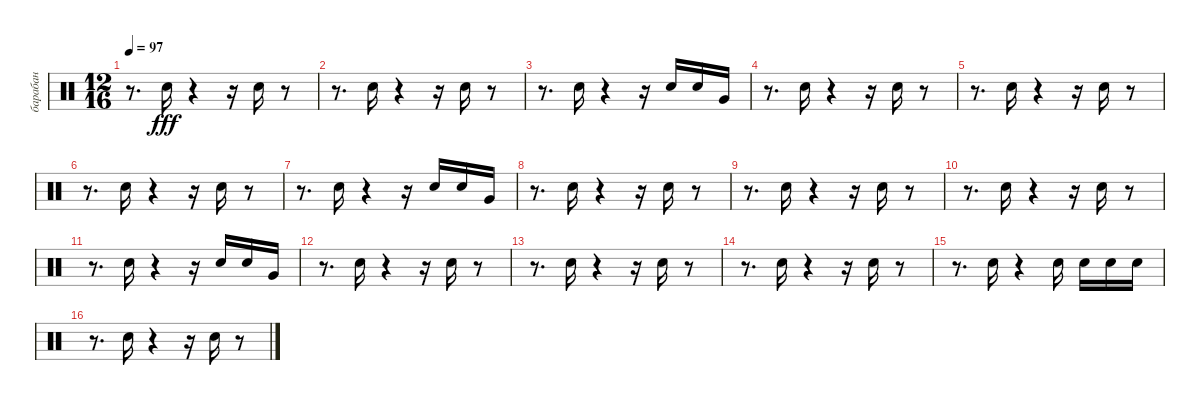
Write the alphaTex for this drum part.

\track ("барабан" "барабан") {instrument percussion}
\staff {score}
\articulation defaults
\ts (12 16)
\tempo 97
\clef neutral
\ks c
r.8{d dy fff} "Snare (hit) 2".16 r.4 r.16 "Snare (hit) 2".16 r.8 |
r.8{d} "Snare (hit) 2".16 r.4 r.16 "Snare (hit) 2".16 r.8 |
r.8{d} "Snare (hit) 2".16 r.4 r.16 "Snare (hit) 2".16 "Snare (hit) 2".16 "Very Low Tom (hit)".16 |
r.8{d} "Snare (hit) 2".16 r.4 r.16 "Snare (hit) 2".16 r.8 |
r.8{d} "Snare (hit) 2".16 r.4 r.16 "Snare (hit) 2".16 r.8 |
r.8{d} "Snare (hit) 2".16 r.4 r.16 "Snare (hit) 2".16 r.8 |
r.8{d} "Snare (hit) 2".16 r.4 r.16 "Snare (hit) 2".16 "Snare (hit) 2".16 "Very Low Tom (hit)".16 |
r.8{d} "Snare (hit) 2".16 r.4 r.16 "Snare (hit) 2".16 r.8 |
r.8{d} "Snare (hit) 2".16 r.4 r.16 "Snare (hit) 2".16 r.8 |
r.8{d} "Snare (hit) 2".16 r.4 r.16 "Snare (hit) 2".16 r.8 |
r.8{d} "Snare (hit) 2".16 r.4 r.16 "Snare (hit) 2".16 "Snare (hit) 2".16 "Very Low Tom (hit)".16 |
r.8{d} "Snare (hit) 2".16 r.4 r.16 "Snare (hit) 2".16 r.8 |
r.8{d} "Snare (hit) 2".16 r.4 r.16 "Snare (hit) 2".16 r.8 |
r.8{d} "Snare (hit) 2".16 r.4 r.16 "Snare (hit) 2".16 r.8 |
r.8{d} "Snare (hit) 2".16 r.4 "Snare (hit) 2".16 "Snare (hit) 2".16 "Snare (hit) 2".16 "Snare (hit) 2".16 |
r.8{d} "Snare (hit) 2".16 r.4 r.16 "Snare (hit) 2".16 r.8
